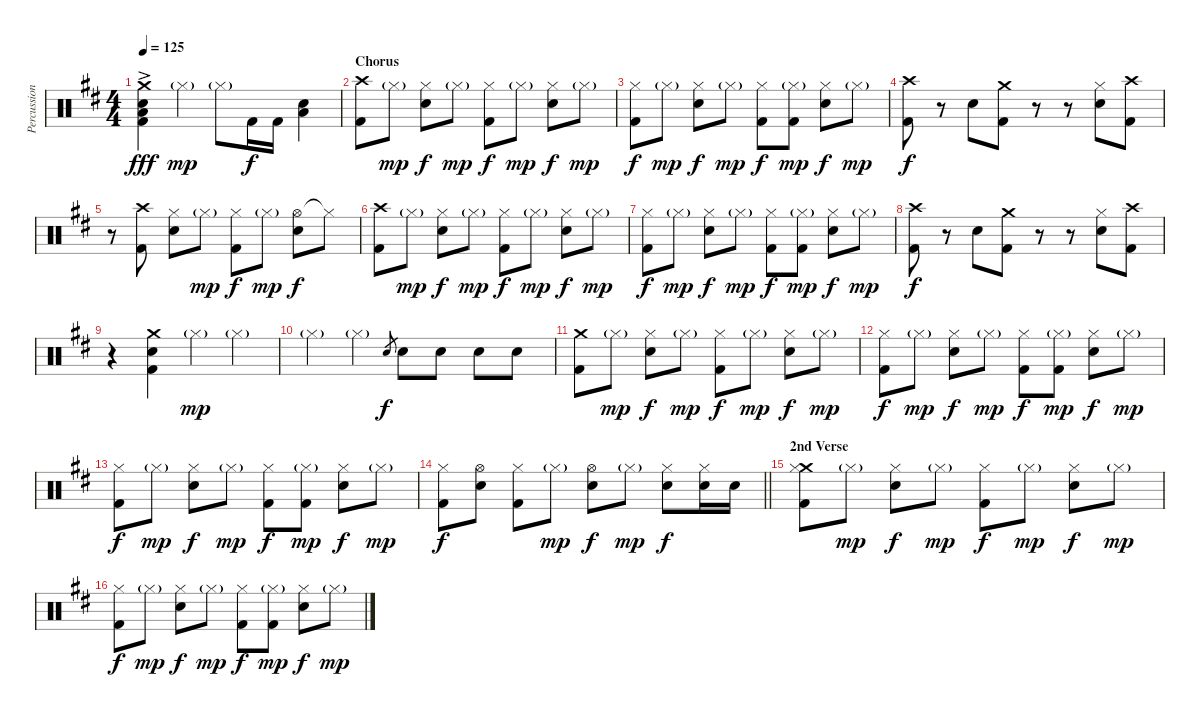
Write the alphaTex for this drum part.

\track ("Percussion" "Percussion") {instrument percussion}
\staff {score}
\articulation defaults
\ts (4 4)
\tempo 125
\clef neutral
\ks bminor
("Crash medium (hit)"{ac} "Low Floor Tom (hit)" "Snare (hit) 2"{ac} "Kick (hit) 2").4{dy fff} "Hi-Hat (closed)"{g}.4{dy mp} "Hi-Hat (closed)"{g}.8 "Kick (hit) 2".16{dy f} "Kick (hit) 2".16 ("Low Floor Tom (hit)" "Snare (hit) 2").4 |
\section ("" "Chorus")
("Crash high (hit)" "Kick (hit) 2").8 "Hi-Hat (closed)"{g}.8{dy mp} ("Hi-Hat (closed)" "Snare (hit) 2").8{dy f} "Hi-Hat (closed)"{g}.8{dy mp} ("Hi-Hat (closed)" "Kick (hit) 2").8{dy f} "Hi-Hat (closed)"{g}.8{dy mp} ("Hi-Hat (closed)" "Snare (hit) 2").8{dy f} "Hi-Hat (closed)"{g}.8{dy mp} |
("Hi-Hat (closed)" "Kick (hit) 2").8{dy f} "Hi-Hat (closed)"{g}.8{dy mp} ("Hi-Hat (closed)" "Snare (hit) 2").8{dy f} "Hi-Hat (closed)"{g}.8{dy mp} ("Hi-Hat (closed)" "Kick (hit) 2").8{dy f} ("Hi-Hat (closed)"{g} "Kick (hit) 2").8{dy mp} ("Hi-Hat (closed)" "Snare (hit) 2").8{dy f} "Hi-Hat (closed)"{g}.8{dy mp} |
("Crash high (hit)" "Kick (hit) 2").8{dy f} r.8 "Snare (hit) 2".8 ("Crash medium (hit)" "Kick (hit) 2").8 r.8 r.8 ("Hi-Hat (closed)" "Snare (hit) 2").8 ("Crash high (hit)" "Kick (hit) 2").8 |
r.8 ("Crash high (hit)" "Kick (hit) 2").8 ("Hi-Hat (closed)" "Snare (hit) 2").8 "Hi-Hat (closed)"{g}.8{dy mp} ("Hi-Hat (closed)" "Kick (hit) 2").8{dy f} "Hi-Hat (closed)"{g}.8{dy mp} ("Hi-Hat (open)" "Snare (hit) 2").8{dy f} "Hi-Hat (closed)"{t}.8 |
("Crash high (hit)" "Kick (hit) 2").8 "Hi-Hat (closed)"{g}.8{dy mp} ("Hi-Hat (closed)" "Snare (hit) 2").8{dy f} "Hi-Hat (closed)"{g}.8{dy mp} ("Hi-Hat (closed)" "Kick (hit) 2").8{dy f} "Hi-Hat (closed)"{g}.8{dy mp} ("Hi-Hat (closed)" "Snare (hit) 2").8{dy f} "Hi-Hat (closed)"{g}.8{dy mp} |
("Hi-Hat (closed)" "Kick (hit) 2").8{dy f} "Hi-Hat (closed)"{g}.8{dy mp} ("Hi-Hat (closed)" "Snare (hit) 2").8{dy f} "Hi-Hat (closed)"{g}.8{dy mp} ("Hi-Hat (closed)" "Kick (hit) 2").8{dy f} ("Hi-Hat (closed)"{g} "Kick (hit) 2").8{dy mp} ("Hi-Hat (closed)" "Snare (hit) 2").8{dy f} "Hi-Hat (closed)"{g}.8{dy mp} |
("Crash high (hit)" "Kick (hit) 2").8{dy f} r.8 "Snare (hit) 2".8 ("Crash medium (hit)" "Kick (hit) 2").8 r.8 r.8 ("Hi-Hat (closed)" "Snare (hit) 2").8 ("Crash high (hit)" "Kick (hit) 2").8 |
r.4 ("Crash medium (hit)" "Snare (hit) 2" "Kick (hit) 2").4 "Hi-Hat (closed)"{g}.4{dy mp} "Hi-Hat (closed)"{g}.4 |
"Hi-Hat (closed)"{g}.4 "Hi-Hat (closed)"{g}.4 "Snare (hit) 2".8{gr dy f} "Snare (hit) 2".8 "Snare (hit) 2".8 "Snare (hit) 2".8 "Snare (hit) 2".8 |
("Crash medium (hit)" "Kick (hit) 2").8 "Hi-Hat (closed)"{g}.8{dy mp} ("Hi-Hat (closed)" "Snare (hit) 2").8{dy f} "Hi-Hat (closed)"{g}.8{dy mp} ("Hi-Hat (closed)" "Kick (hit) 2").8{dy f} "Hi-Hat (closed)"{g}.8{dy mp} ("Hi-Hat (closed)" "Snare (hit) 2").8{dy f} "Hi-Hat (closed)"{g}.8{dy mp} |
("Hi-Hat (closed)" "Kick (hit) 2").8{dy f} "Hi-Hat (closed)"{g}.8{dy mp} ("Hi-Hat (closed)" "Snare (hit) 2").8{dy f} "Hi-Hat (closed)"{g}.8{dy mp} ("Hi-Hat (closed)" "Kick (hit) 2").8{dy f} ("Hi-Hat (closed)"{g} "Kick (hit) 2").8{dy mp} ("Hi-Hat (closed)" "Snare (hit) 2").8{dy f} "Hi-Hat (closed)"{g}.8{dy mp} |
("Hi-Hat (closed)" "Kick (hit) 2").8{dy f} "Hi-Hat (closed)"{g}.8{dy mp} ("Hi-Hat (closed)" "Snare (hit) 2").8{dy f} "Hi-Hat (closed)"{g}.8{dy mp} ("Hi-Hat (closed)" "Kick (hit) 2").8{dy f} ("Hi-Hat (closed)"{g} "Kick (hit) 2").8{dy mp} ("Hi-Hat (closed)" "Snare (hit) 2").8{dy f} "Hi-Hat (closed)"{g}.8{dy mp} |
\barLineRight lightlight
("Hi-Hat (closed)" "Kick (hit) 2").8{dy f} ("Hi-Hat (open)" "Snare (hit) 2").8 ("Hi-Hat (closed)" "Kick (hit) 2").8 "Hi-Hat (closed)"{g}.8{dy mp} ("Hi-Hat (open)" "Snare (hit) 2").8{dy f} "Hi-Hat (closed)"{g}.8{dy mp} ("Hi-Hat (closed)" "Snare (hit) 2").8{dy f} ("Hi-Hat (closed)" "Electric Snare (hit)").16 "Electric Snare (hit)".16 |
\section ("" "2nd Verse")
("Crash medium (hit)" "Hi-Hat (closed)" "Kick (hit) 2").8 "Hi-Hat (closed)"{g}.8{dy mp} ("Hi-Hat (closed)" "Snare (hit) 2").8{dy f} "Hi-Hat (closed)"{g}.8{dy mp} ("Hi-Hat (closed)" "Kick (hit) 2").8{dy f} "Hi-Hat (closed)"{g}.8{dy mp} ("Hi-Hat (closed)" "Snare (hit) 2").8{dy f} "Hi-Hat (closed)"{g}.8{dy mp} |
("Hi-Hat (closed)" "Kick (hit) 2").8{dy f} "Hi-Hat (closed)"{g}.8{dy mp} ("Hi-Hat (closed)" "Snare (hit) 2").8{dy f} "Hi-Hat (closed)"{g}.8{dy mp} ("Hi-Hat (closed)" "Kick (hit) 2").8{dy f} ("Hi-Hat (closed)"{g} "Kick (hit) 2").8{dy mp} ("Hi-Hat (closed)" "Snare (hit) 2").8{dy f} "Hi-Hat (closed)"{g}.8{dy mp}
